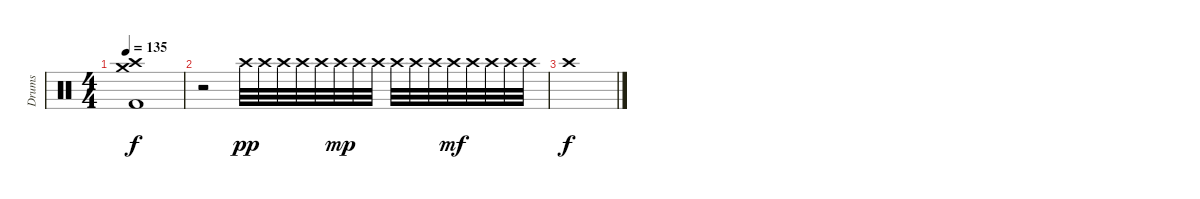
\track ("Drums" "Drums") {instrument percussion}
\staff {score}
\articulation defaults
\ts (4 4)
\tempo 135
\clef neutral
\ks c
("Crash high (hit)" "Crash medium (hit)" "Kick (hit) 2").1{dy f} |
r.2 "Crash high (hit)".32{dy pp} "Crash high (hit)".32 "Crash high (hit)".32 "Crash high (hit)".32 "Crash high (hit)".32 "Crash high (hit)".32{dy mp} "Crash high (hit)".32 "Crash high (hit)".32 "Crash high (hit)".32 "Crash high (hit)".32 "Crash high (hit)".32 "Crash high (hit)".32{dy mf} "Crash high (hit)".32 "Crash high (hit)".32 "Crash high (hit)".32 "Crash high (hit)".32 |
"Crash high (hit)".1{dy f}
